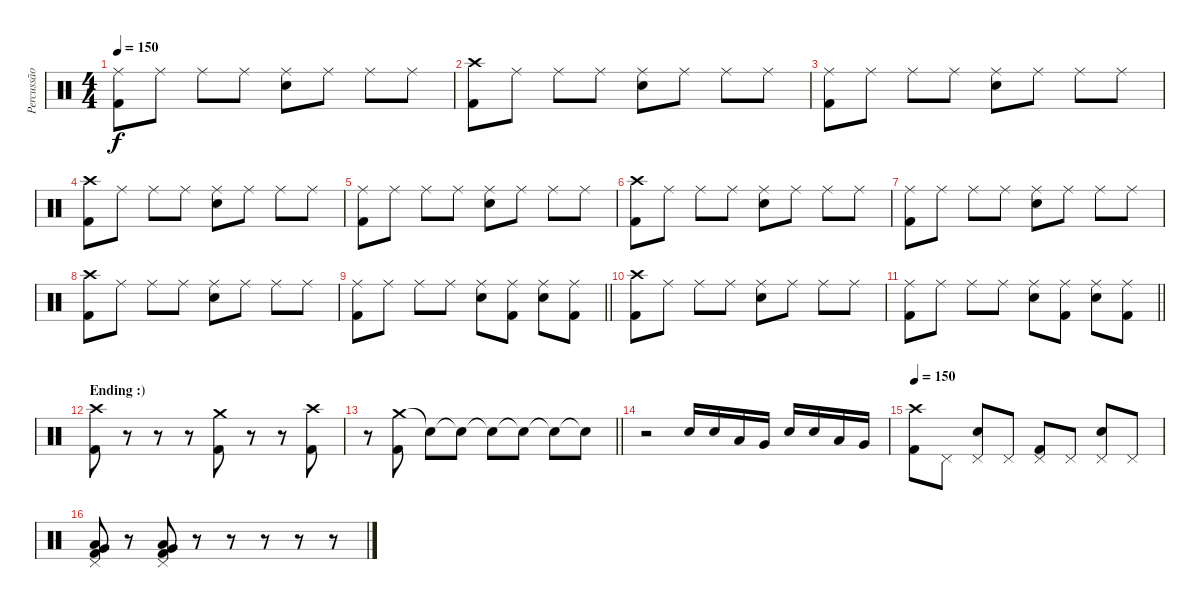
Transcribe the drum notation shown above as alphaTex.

\track ("Percussão" "Percussão") {instrument percussion}
\staff {score}
\articulation defaults
\ts (4 4)
\tempo 150
\clef neutral
\ks c
("Ride (middle)" "Kick (hit) 2").8{dy f} "Ride (middle)".8 "Ride (middle)".8 "Ride (middle)".8 ("Ride (middle)" "Snare (hit) 2").8 "Ride (middle)".8 "Ride (middle)".8 "Ride (middle)".8 |
("Crash high (hit)" "Kick (hit) 2").8 "Ride (middle)".8 "Ride (middle)".8 "Ride (middle)".8 ("Ride (middle)" "Snare (hit) 2").8 "Ride (middle)".8 "Ride (middle)".8 "Ride (middle)".8 |
("Ride (middle)" "Kick (hit) 2").8 "Ride (middle)".8 "Ride (middle)".8 "Ride (middle)".8 ("Ride (middle)" "Snare (hit) 2").8 "Ride (middle)".8 "Ride (middle)".8 "Ride (middle)".8 |
("Crash high (hit)" "Kick (hit) 2").8 "Ride (middle)".8 "Ride (middle)".8 "Ride (middle)".8 ("Ride (middle)" "Snare (hit) 2").8 "Ride (middle)".8 "Ride (middle)".8 "Ride (middle)".8 |
("Ride (middle)" "Kick (hit) 2").8 "Ride (middle)".8 "Ride (middle)".8 "Ride (middle)".8 ("Ride (middle)" "Snare (hit) 2").8 "Ride (middle)".8 "Ride (middle)".8 "Ride (middle)".8 |
("Crash high (hit)" "Kick (hit) 2").8 "Ride (middle)".8 "Ride (middle)".8 "Ride (middle)".8 ("Ride (middle)" "Snare (hit) 2").8 "Ride (middle)".8 "Ride (middle)".8 "Ride (middle)".8 |
("Ride (middle)" "Kick (hit) 2").8 "Ride (middle)".8 "Ride (middle)".8 "Ride (middle)".8 ("Ride (middle)" "Snare (hit) 2").8 "Ride (middle)".8 "Ride (middle)".8 "Ride (middle)".8 |
("Crash high (hit)" "Kick (hit) 2").8 "Ride (middle)".8 "Ride (middle)".8 "Ride (middle)".8 ("Ride (middle)" "Snare (hit) 2").8 "Ride (middle)".8 "Ride (middle)".8 "Ride (middle)".8 |
\barLineRight lightlight
("Ride (middle)" "Kick (hit) 2").8 "Ride (middle)".8 "Ride (middle)".8 "Ride (middle)".8 ("Ride (middle)" "Snare (hit) 2").8 ("Ride (middle)" "Kick (hit) 2").8 ("Ride (middle)" "Snare (hit) 2").8 ("Ride (middle)" "Kick (hit) 2").8 |
("Crash high (hit)" "Kick (hit) 2").8 "Ride (middle)".8 "Ride (middle)".8 "Ride (middle)".8 ("Ride (middle)" "Snare (hit) 2").8 "Ride (middle)".8 "Ride (middle)".8 "Ride (middle)".8 |
\barLineRight lightlight
("Ride (middle)" "Kick (hit) 2").8 "Ride (middle)".8 "Ride (middle)".8 "Ride (middle)".8 ("Ride (middle)" "Snare (hit) 2").8 ("Ride (middle)" "Kick (hit) 2").8 ("Ride (middle)" "Snare (hit) 2").8 ("Ride (middle)" "Kick (hit) 2").8 |
\section ("" "Ending :)")
("Crash high (hit)" "Kick (hit) 2").8 r.8 r.8 r.8 ("Crash medium (hit)" "Kick (hit) 2").8 r.8 r.8 ("Crash high (hit)" "Kick (hit) 2").8 |
\barLineRight lightlight
r.8 ("Crash medium (hit)" "Kick (hit) 2").8 "Snare (hit)"{t}.8 "Snare (hit)"{t}.8 "Snare (hit)"{t}.8 "Snare (hit)"{t}.8 "Snare (hit)"{t}.8 "Snare (hit)"{t}.8 |
r.2 "Snare (hit) 2".16 "Snare (hit) 2".16 "Low Tom (hit)".16 "Very Low Tom (hit)".16 "Snare (hit) 2".16 "Snare (hit) 2".16 "Low Tom (hit)".16 "Very Low Tom (hit)".16 |
\tempo 150
("Crash high (hit)" "Kick (hit) 2").8 "Pedal Hi-Hat (hit)".8 ("Pedal Hi-Hat (hit)" "Snare (hit) 2").8 "Pedal Hi-Hat (hit)".8 ("Pedal Hi-Hat (hit)" "Kick (hit) 2").8 "Pedal Hi-Hat (hit)".8 ("Pedal Hi-Hat (hit)" "Snare (hit) 2").8 "Pedal Hi-Hat (hit)".8 |
("Low Tom (hit)" "Very Low Tom (hit)" "Kick (hit) 2" "Pedal Hi-Hat (hit)").8 r.8 ("Low Tom (hit)" "Very Low Tom (hit)" "Kick (hit) 2" "Pedal Hi-Hat (hit)").8 r.8 r.8 r.8 r.8 r.8
